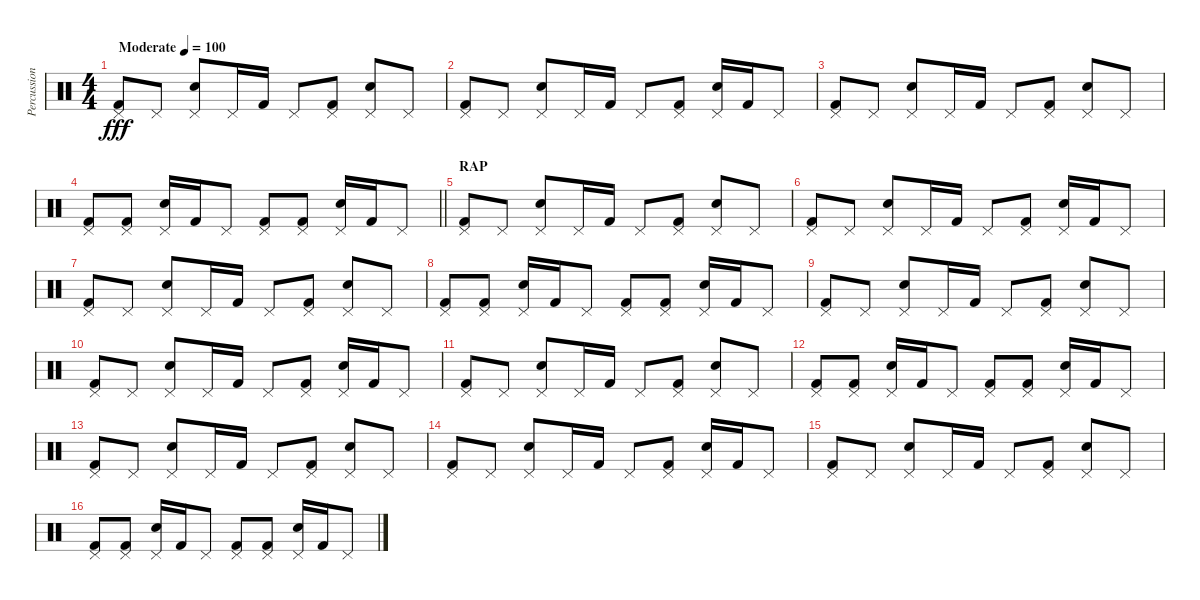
\track ("Percussion" "Percussion") {instrument percussion}
\staff {score}
\articulation defaults
\ts (4 4)
\tempo (100 "Moderate")
\clef neutral
\ks c
("Pedal Hi-Hat (hit)" "Kick (hit) 2").8{dy fff} "Pedal Hi-Hat (hit)".8 ("Pedal Hi-Hat (hit)" "Electric Snare (hit)").8 "Pedal Hi-Hat (hit)".16 "Kick (hit) 2".16 "Pedal Hi-Hat (hit)".8 ("Pedal Hi-Hat (hit)" "Kick (hit) 2").8 ("Pedal Hi-Hat (hit)" "Electric Snare (hit)").8 "Pedal Hi-Hat (hit)".8 |
("Pedal Hi-Hat (hit)" "Kick (hit) 2").8 "Pedal Hi-Hat (hit)".8 ("Pedal Hi-Hat (hit)" "Electric Snare (hit)").8 "Pedal Hi-Hat (hit)".16 "Kick (hit) 2".16 "Pedal Hi-Hat (hit)".8 ("Pedal Hi-Hat (hit)" "Kick (hit) 2").8 ("Pedal Hi-Hat (hit)" "Electric Snare (hit)").16 "Kick (hit) 2".16 "Pedal Hi-Hat (hit)".8 |
("Pedal Hi-Hat (hit)" "Kick (hit) 2").8 "Pedal Hi-Hat (hit)".8 ("Pedal Hi-Hat (hit)" "Electric Snare (hit)").8 "Pedal Hi-Hat (hit)".16 "Kick (hit) 2".16 "Pedal Hi-Hat (hit)".8 ("Pedal Hi-Hat (hit)" "Kick (hit) 2").8 ("Pedal Hi-Hat (hit)" "Electric Snare (hit)").8 "Pedal Hi-Hat (hit)".8 |
\barLineRight lightlight
("Pedal Hi-Hat (hit)" "Kick (hit) 2").8 ("Pedal Hi-Hat (hit)" "Kick (hit) 2").8 ("Pedal Hi-Hat (hit)" "Electric Snare (hit)").16 "Kick (hit) 2".16 "Pedal Hi-Hat (hit)".8 ("Pedal Hi-Hat (hit)" "Kick (hit) 2").8 ("Pedal Hi-Hat (hit)" "Kick (hit) 2").8 ("Pedal Hi-Hat (hit)" "Electric Snare (hit)").16 "Kick (hit) 2".16 "Pedal Hi-Hat (hit)".8 |
\section ("" "RAP")
("Pedal Hi-Hat (hit)" "Kick (hit) 2").8 "Pedal Hi-Hat (hit)".8 ("Pedal Hi-Hat (hit)" "Electric Snare (hit)").8 "Pedal Hi-Hat (hit)".16 "Kick (hit) 2".16 "Pedal Hi-Hat (hit)".8 ("Pedal Hi-Hat (hit)" "Kick (hit) 2").8 ("Pedal Hi-Hat (hit)" "Electric Snare (hit)").8 "Pedal Hi-Hat (hit)".8 |
("Pedal Hi-Hat (hit)" "Kick (hit) 2").8 "Pedal Hi-Hat (hit)".8 ("Pedal Hi-Hat (hit)" "Electric Snare (hit)").8 "Pedal Hi-Hat (hit)".16 "Kick (hit) 2".16 "Pedal Hi-Hat (hit)".8 ("Pedal Hi-Hat (hit)" "Kick (hit) 2").8 ("Pedal Hi-Hat (hit)" "Electric Snare (hit)").16 "Kick (hit) 2".16 "Pedal Hi-Hat (hit)".8 |
("Pedal Hi-Hat (hit)" "Kick (hit) 2").8 "Pedal Hi-Hat (hit)".8 ("Pedal Hi-Hat (hit)" "Electric Snare (hit)").8 "Pedal Hi-Hat (hit)".16 "Kick (hit) 2".16 "Pedal Hi-Hat (hit)".8 ("Pedal Hi-Hat (hit)" "Kick (hit) 2").8 ("Pedal Hi-Hat (hit)" "Electric Snare (hit)").8 "Pedal Hi-Hat (hit)".8 |
("Pedal Hi-Hat (hit)" "Kick (hit) 2").8 ("Pedal Hi-Hat (hit)" "Kick (hit) 2").8 ("Pedal Hi-Hat (hit)" "Electric Snare (hit)").16 "Kick (hit) 2".16 "Pedal Hi-Hat (hit)".8 ("Pedal Hi-Hat (hit)" "Kick (hit) 2").8 ("Pedal Hi-Hat (hit)" "Kick (hit) 2").8 ("Pedal Hi-Hat (hit)" "Electric Snare (hit)").16 "Kick (hit) 2".16 "Pedal Hi-Hat (hit)".8 |
("Pedal Hi-Hat (hit)" "Kick (hit) 2").8 "Pedal Hi-Hat (hit)".8 ("Pedal Hi-Hat (hit)" "Electric Snare (hit)").8 "Pedal Hi-Hat (hit)".16 "Kick (hit) 2".16 "Pedal Hi-Hat (hit)".8 ("Pedal Hi-Hat (hit)" "Kick (hit) 2").8 ("Pedal Hi-Hat (hit)" "Electric Snare (hit)").8 "Pedal Hi-Hat (hit)".8 |
("Pedal Hi-Hat (hit)" "Kick (hit) 2").8 "Pedal Hi-Hat (hit)".8 ("Pedal Hi-Hat (hit)" "Electric Snare (hit)").8 "Pedal Hi-Hat (hit)".16 "Kick (hit) 2".16 "Pedal Hi-Hat (hit)".8 ("Pedal Hi-Hat (hit)" "Kick (hit) 2").8 ("Pedal Hi-Hat (hit)" "Electric Snare (hit)").16 "Kick (hit) 2".16 "Pedal Hi-Hat (hit)".8 |
("Pedal Hi-Hat (hit)" "Kick (hit) 2").8 "Pedal Hi-Hat (hit)".8 ("Pedal Hi-Hat (hit)" "Electric Snare (hit)").8 "Pedal Hi-Hat (hit)".16 "Kick (hit) 2".16 "Pedal Hi-Hat (hit)".8 ("Pedal Hi-Hat (hit)" "Kick (hit) 2").8 ("Pedal Hi-Hat (hit)" "Electric Snare (hit)").8 "Pedal Hi-Hat (hit)".8 |
("Pedal Hi-Hat (hit)" "Kick (hit) 2").8 ("Pedal Hi-Hat (hit)" "Kick (hit) 2").8 ("Pedal Hi-Hat (hit)" "Electric Snare (hit)").16 "Kick (hit) 2".16 "Pedal Hi-Hat (hit)".8 ("Pedal Hi-Hat (hit)" "Kick (hit) 2").8 ("Pedal Hi-Hat (hit)" "Kick (hit) 2").8 ("Pedal Hi-Hat (hit)" "Electric Snare (hit)").16 "Kick (hit) 2".16 "Pedal Hi-Hat (hit)".8 |
("Pedal Hi-Hat (hit)" "Kick (hit) 2").8 "Pedal Hi-Hat (hit)".8 ("Pedal Hi-Hat (hit)" "Electric Snare (hit)").8 "Pedal Hi-Hat (hit)".16 "Kick (hit) 2".16 "Pedal Hi-Hat (hit)".8 ("Pedal Hi-Hat (hit)" "Kick (hit) 2").8 ("Pedal Hi-Hat (hit)" "Electric Snare (hit)").8 "Pedal Hi-Hat (hit)".8 |
("Pedal Hi-Hat (hit)" "Kick (hit) 2").8 "Pedal Hi-Hat (hit)".8 ("Pedal Hi-Hat (hit)" "Electric Snare (hit)").8 "Pedal Hi-Hat (hit)".16 "Kick (hit) 2".16 "Pedal Hi-Hat (hit)".8 ("Pedal Hi-Hat (hit)" "Kick (hit) 2").8 ("Pedal Hi-Hat (hit)" "Electric Snare (hit)").16 "Kick (hit) 2".16 "Pedal Hi-Hat (hit)".8 |
("Pedal Hi-Hat (hit)" "Kick (hit) 2").8 "Pedal Hi-Hat (hit)".8 ("Pedal Hi-Hat (hit)" "Electric Snare (hit)").8 "Pedal Hi-Hat (hit)".16 "Kick (hit) 2".16 "Pedal Hi-Hat (hit)".8 ("Pedal Hi-Hat (hit)" "Kick (hit) 2").8 ("Pedal Hi-Hat (hit)" "Electric Snare (hit)").8 "Pedal Hi-Hat (hit)".8 |
("Pedal Hi-Hat (hit)" "Kick (hit) 2").8 ("Pedal Hi-Hat (hit)" "Kick (hit) 2").8 ("Pedal Hi-Hat (hit)" "Electric Snare (hit)").16 "Kick (hit) 2".16 "Pedal Hi-Hat (hit)".8 ("Pedal Hi-Hat (hit)" "Kick (hit) 2").8 ("Pedal Hi-Hat (hit)" "Kick (hit) 2").8 ("Pedal Hi-Hat (hit)" "Electric Snare (hit)").16 "Kick (hit) 2".16 "Pedal Hi-Hat (hit)".8
